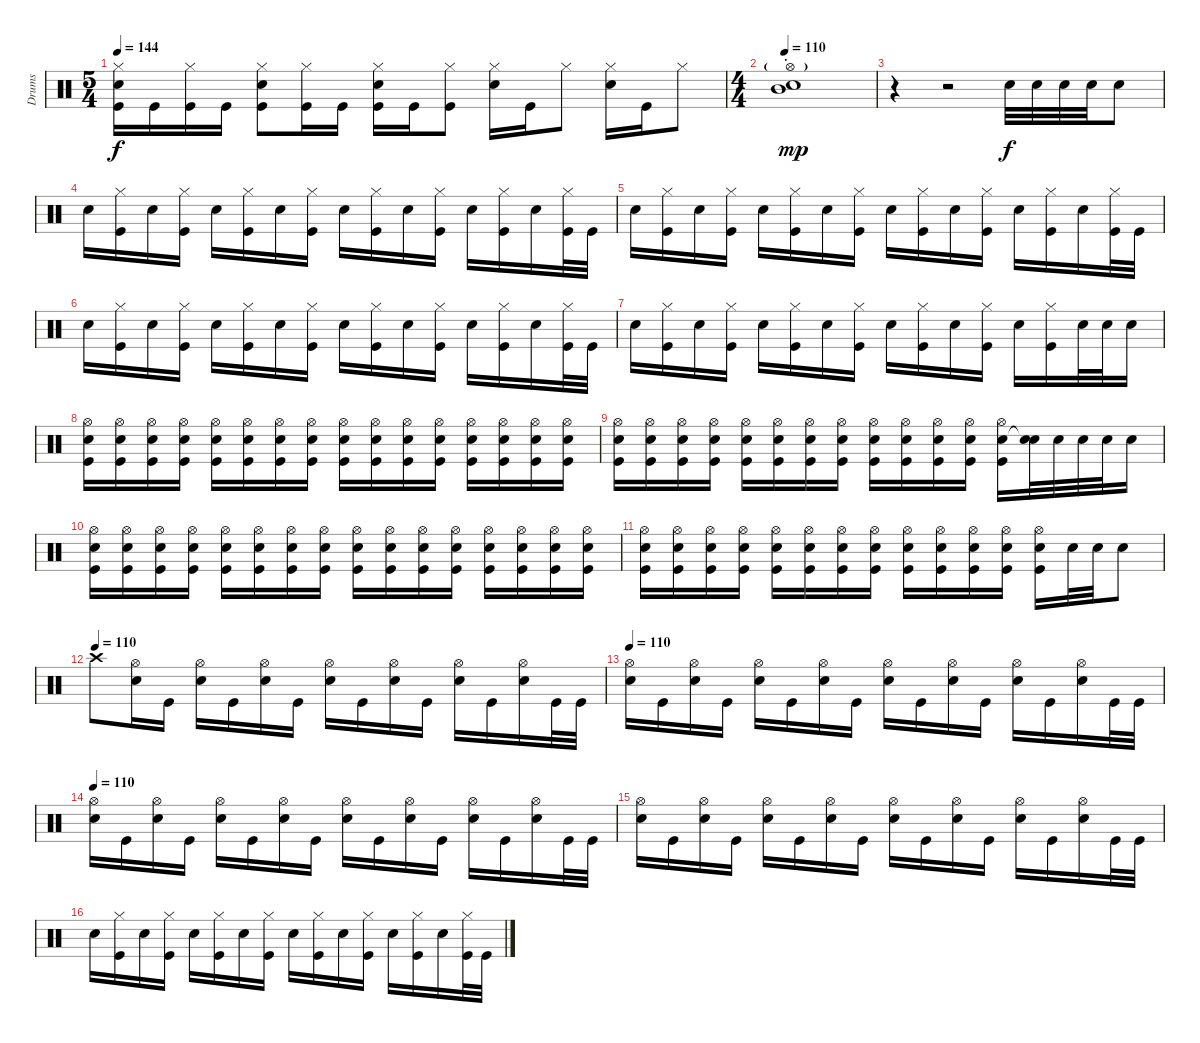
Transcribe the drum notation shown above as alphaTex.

\track ("Drums" "Drums") {instrument percussion}
\staff {score}
\articulation defaults
\ts (5 4)
\tempo 144
\clef neutral
\ks c
("Hi-Hat (closed)" "Snare (hit) 2" "Kick (hit)").16{dy f} "Kick (hit)".16 ("Hi-Hat (closed)" "Kick (hit)").16 "Kick (hit)".16 ("Hi-Hat (closed)" "Snare (hit) 2" "Kick (hit)").8 ("Hi-Hat (closed)" "Kick (hit)").16 "Kick (hit)".16 ("Hi-Hat (closed)" "Snare (hit) 2" "Kick (hit)").16 "Kick (hit)".16 ("Hi-Hat (closed)" "Kick (hit)").8 ("Hi-Hat (closed)" "Snare (hit) 2").16 "Kick (hit)".16 "Hi-Hat (closed)".8 ("Hi-Hat (closed)" "Snare (hit) 2").16 "Kick (hit)".16 "Hi-Hat (closed)".8 |
\ts (4 4)
\tempo 110
("Hi-Hat (open)"{g st} "Mid Tom (hit)" "Snare (hit)").1{dy mp} |
r.4 r.2 "Snare (hit) 2".32{dy f} "Snare (hit) 2".32 "Snare (hit) 2".32 "Snare (hit) 2".32 "Snare (hit) 2".8 |
"Snare (hit) 2".16 ("Hi-Hat (closed)" "Kick (hit)").16 "Snare (hit) 2".16 ("Hi-Hat (closed)" "Kick (hit)").16 "Snare (hit) 2".16 ("Hi-Hat (closed)" "Kick (hit)").16 "Snare (hit) 2".16 ("Hi-Hat (closed)" "Kick (hit)").16 "Snare (hit) 2".16 ("Hi-Hat (closed)" "Kick (hit)").16 "Snare (hit) 2".16 ("Hi-Hat (closed)" "Kick (hit)").16 "Snare (hit) 2".16 ("Hi-Hat (closed)" "Kick (hit)").16 "Snare (hit) 2".16 ("Hi-Hat (closed)" "Kick (hit)").32 "Kick (hit)".32 |
"Snare (hit) 2".16 ("Hi-Hat (closed)" "Kick (hit)").16 "Snare (hit) 2".16 ("Hi-Hat (closed)" "Kick (hit)").16 "Snare (hit) 2".16 ("Hi-Hat (closed)" "Kick (hit)").16 "Snare (hit) 2".16 ("Hi-Hat (closed)" "Kick (hit)").16 "Snare (hit) 2".16 ("Hi-Hat (closed)" "Kick (hit)").16 "Snare (hit) 2".16 ("Hi-Hat (closed)" "Kick (hit)").16 "Snare (hit) 2".16 ("Hi-Hat (closed)" "Kick (hit)").16 "Snare (hit) 2".16 ("Hi-Hat (closed)" "Kick (hit)").32 "Kick (hit)".32 |
"Snare (hit) 2".16 ("Hi-Hat (closed)" "Kick (hit)").16 "Snare (hit) 2".16 ("Hi-Hat (closed)" "Kick (hit)").16 "Snare (hit) 2".16 ("Hi-Hat (closed)" "Kick (hit)").16 "Snare (hit) 2".16 ("Hi-Hat (closed)" "Kick (hit)").16 "Snare (hit) 2".16 ("Hi-Hat (closed)" "Kick (hit)").16 "Snare (hit) 2".16 ("Hi-Hat (closed)" "Kick (hit)").16 "Snare (hit) 2".16 ("Hi-Hat (closed)" "Kick (hit)").16 "Snare (hit) 2".16 ("Hi-Hat (closed)" "Kick (hit)").32 "Kick (hit)".32 |
"Snare (hit) 2".16 ("Hi-Hat (closed)" "Kick (hit)").16 "Snare (hit) 2".16 ("Hi-Hat (closed)" "Kick (hit)").16 "Snare (hit) 2".16 ("Hi-Hat (closed)" "Kick (hit)").16 "Snare (hit) 2".16 ("Hi-Hat (closed)" "Kick (hit)").16 "Snare (hit) 2".16 ("Hi-Hat (closed)" "Kick (hit)").16 "Snare (hit) 2".16 ("Hi-Hat (closed)" "Kick (hit)").16 "Snare (hit) 2".16 ("Hi-Hat (closed)" "Kick (hit)").16 "Snare (hit) 2".32 "Snare (hit) 2".32 "Snare (hit) 2".16 |
("Hi-Hat (open)" "Snare (hit) 2" "Kick (hit)").16 ("Hi-Hat (open)" "Snare (hit) 2" "Kick (hit)").16 ("Hi-Hat (open)" "Snare (hit) 2" "Kick (hit)").16 ("Hi-Hat (open)" "Snare (hit) 2" "Kick (hit)").16 ("Hi-Hat (open)" "Snare (hit) 2" "Kick (hit)").16 ("Hi-Hat (open)" "Snare (hit) 2" "Kick (hit)").16 ("Hi-Hat (open)" "Snare (hit) 2" "Kick (hit)").16 ("Hi-Hat (open)" "Snare (hit) 2" "Kick (hit)").16 ("Hi-Hat (open)" "Snare (hit) 2" "Kick (hit)").16 ("Hi-Hat (open)" "Snare (hit) 2" "Kick (hit)").16 ("Hi-Hat (open)" "Snare (hit) 2" "Kick (hit)").16 ("Hi-Hat (open)" "Snare (hit) 2" "Kick (hit)").16 ("Hi-Hat (open)" "Snare (hit) 2" "Kick (hit)").16 ("Hi-Hat (open)" "Snare (hit) 2" "Kick (hit)").16 ("Hi-Hat (open)" "Snare (hit) 2" "Kick (hit)").16 ("Hi-Hat (open)" "Snare (hit) 2" "Kick (hit)").16 |
("Hi-Hat (open)" "Snare (hit) 2" "Kick (hit)").16 ("Hi-Hat (open)" "Snare (hit) 2" "Kick (hit)").16 ("Hi-Hat (open)" "Snare (hit) 2" "Kick (hit)").16 ("Hi-Hat (open)" "Snare (hit) 2" "Kick (hit)").16 ("Hi-Hat (open)" "Snare (hit) 2" "Kick (hit)").16 ("Hi-Hat (open)" "Snare (hit) 2" "Kick (hit)").16 ("Hi-Hat (open)" "Snare (hit) 2" "Kick (hit)").16 ("Hi-Hat (open)" "Snare (hit) 2" "Kick (hit)").16 ("Hi-Hat (open)" "Snare (hit) 2" "Kick (hit)").16 ("Hi-Hat (open)" "Snare (hit) 2" "Kick (hit)").16 ("Hi-Hat (open)" "Snare (hit) 2" "Kick (hit)").16 ("Hi-Hat (open)" "Snare (hit) 2" "Kick (hit)").16 ("Hi-Hat (open)" "Snare (hit) 2" "Kick (hit)").16 ("Snare (hit) 2" "Snare (hit)"{t}).32 "Snare (hit) 2".32 "Snare (hit) 2".32 "Snare (hit) 2".32 "Snare (hit) 2".16 |
("Hi-Hat (open)" "Snare (hit) 2" "Kick (hit)").16 ("Hi-Hat (open)" "Snare (hit) 2" "Kick (hit)").16 ("Hi-Hat (open)" "Snare (hit) 2" "Kick (hit)").16 ("Hi-Hat (open)" "Snare (hit) 2" "Kick (hit)").16 ("Hi-Hat (open)" "Snare (hit) 2" "Kick (hit)").16 ("Hi-Hat (open)" "Snare (hit) 2" "Kick (hit)").16 ("Hi-Hat (open)" "Snare (hit) 2" "Kick (hit)").16 ("Hi-Hat (open)" "Snare (hit) 2" "Kick (hit)").16 ("Hi-Hat (open)" "Snare (hit) 2" "Kick (hit)").16 ("Hi-Hat (open)" "Snare (hit) 2" "Kick (hit)").16 ("Hi-Hat (open)" "Snare (hit) 2" "Kick (hit)").16 ("Hi-Hat (open)" "Snare (hit) 2" "Kick (hit)").16 ("Hi-Hat (open)" "Snare (hit) 2" "Kick (hit)").16 ("Hi-Hat (open)" "Snare (hit) 2" "Kick (hit)").16 ("Hi-Hat (open)" "Snare (hit) 2" "Kick (hit)").16 ("Hi-Hat (open)" "Snare (hit) 2" "Kick (hit)").16 |
("Hi-Hat (open)" "Snare (hit) 2" "Kick (hit)").16 ("Hi-Hat (open)" "Snare (hit) 2" "Kick (hit)").16 ("Hi-Hat (open)" "Snare (hit) 2" "Kick (hit)").16 ("Hi-Hat (open)" "Snare (hit) 2" "Kick (hit)").16 ("Hi-Hat (open)" "Snare (hit) 2" "Kick (hit)").16 ("Hi-Hat (open)" "Snare (hit) 2" "Kick (hit)").16 ("Hi-Hat (open)" "Snare (hit) 2" "Kick (hit)").16 ("Hi-Hat (open)" "Snare (hit) 2" "Kick (hit)").16 ("Hi-Hat (open)" "Snare (hit) 2" "Kick (hit)").16 ("Hi-Hat (open)" "Snare (hit) 2" "Kick (hit)").16 ("Hi-Hat (open)" "Snare (hit) 2" "Kick (hit)").16 ("Hi-Hat (open)" "Snare (hit) 2" "Kick (hit)").16 ("Hi-Hat (open)" "Snare (hit) 2" "Kick (hit)").16 "Snare (hit) 2".32 "Snare (hit) 2".32 "Snare (hit) 2".8 |
\tempo (110)
"Crash high (hit)".8 ("Hi-Hat (open)" "Snare (hit) 2").16 "Kick (hit)".16 ("Hi-Hat (open)" "Snare (hit) 2").16 "Kick (hit)".16 ("Hi-Hat (open)" "Snare (hit) 2").16 "Kick (hit)".16 ("Hi-Hat (open)" "Snare (hit) 2").16 "Kick (hit)".16 ("Hi-Hat (open)" "Snare (hit) 2").16 "Kick (hit)".16 ("Hi-Hat (open)" "Snare (hit) 2").16 "Kick (hit)".16 ("Hi-Hat (open)" "Snare (hit) 2").16 "Kick (hit)".32 "Kick (hit)".32 |
\tempo 110
("Hi-Hat (open)" "Snare (hit) 2").16 "Kick (hit)".16 ("Hi-Hat (open)" "Snare (hit) 2").16 "Kick (hit)".16 ("Hi-Hat (open)" "Snare (hit) 2").16 "Kick (hit)".16 ("Hi-Hat (open)" "Snare (hit) 2").16 "Kick (hit)".16 ("Hi-Hat (open)" "Snare (hit) 2").16 "Kick (hit)".16 ("Hi-Hat (open)" "Snare (hit) 2").16 "Kick (hit)".16 ("Hi-Hat (open)" "Snare (hit) 2").16 "Kick (hit)".16 ("Hi-Hat (open)" "Snare (hit) 2").16 "Kick (hit)".32 "Kick (hit)".32 |
\tempo 110
("Hi-Hat (open)" "Snare (hit) 2").16 "Kick (hit)".16 ("Hi-Hat (open)" "Snare (hit) 2").16 "Kick (hit)".16 ("Hi-Hat (open)" "Snare (hit) 2").16 "Kick (hit)".16 ("Hi-Hat (open)" "Snare (hit) 2").16 "Kick (hit)".16 ("Hi-Hat (open)" "Snare (hit) 2").16 "Kick (hit)".16 ("Hi-Hat (open)" "Snare (hit) 2").16 "Kick (hit)".16 ("Hi-Hat (open)" "Snare (hit) 2").16 "Kick (hit)".16 ("Hi-Hat (open)" "Snare (hit) 2").16 "Kick (hit)".32 "Kick (hit)".32 |
("Hi-Hat (open)" "Snare (hit) 2").16 "Kick (hit)".16 ("Hi-Hat (open)" "Snare (hit) 2").16 "Kick (hit)".16 ("Hi-Hat (open)" "Snare (hit) 2").16 "Kick (hit)".16 ("Hi-Hat (open)" "Snare (hit) 2").16 "Kick (hit)".16 ("Hi-Hat (open)" "Snare (hit) 2").16 "Kick (hit)".16 ("Hi-Hat (open)" "Snare (hit) 2").16 "Kick (hit)".16 ("Hi-Hat (open)" "Snare (hit) 2").16 "Kick (hit)".16 ("Hi-Hat (open)" "Snare (hit) 2").16 "Kick (hit)".32 "Kick (hit)".32 |
"Snare (hit) 2".16 ("Hi-Hat (closed)" "Kick (hit)").16 "Snare (hit) 2".16 ("Hi-Hat (closed)" "Kick (hit)").16 "Snare (hit) 2".16 ("Hi-Hat (closed)" "Kick (hit)").16 "Snare (hit) 2".16 ("Hi-Hat (closed)" "Kick (hit)").16 "Snare (hit) 2".16 ("Hi-Hat (closed)" "Kick (hit)").16 "Snare (hit) 2".16 ("Hi-Hat (closed)" "Kick (hit)").16 "Snare (hit) 2".16 ("Hi-Hat (closed)" "Kick (hit)").16 "Snare (hit) 2".16 ("Hi-Hat (closed)" "Kick (hit)").32 "Kick (hit)".32
